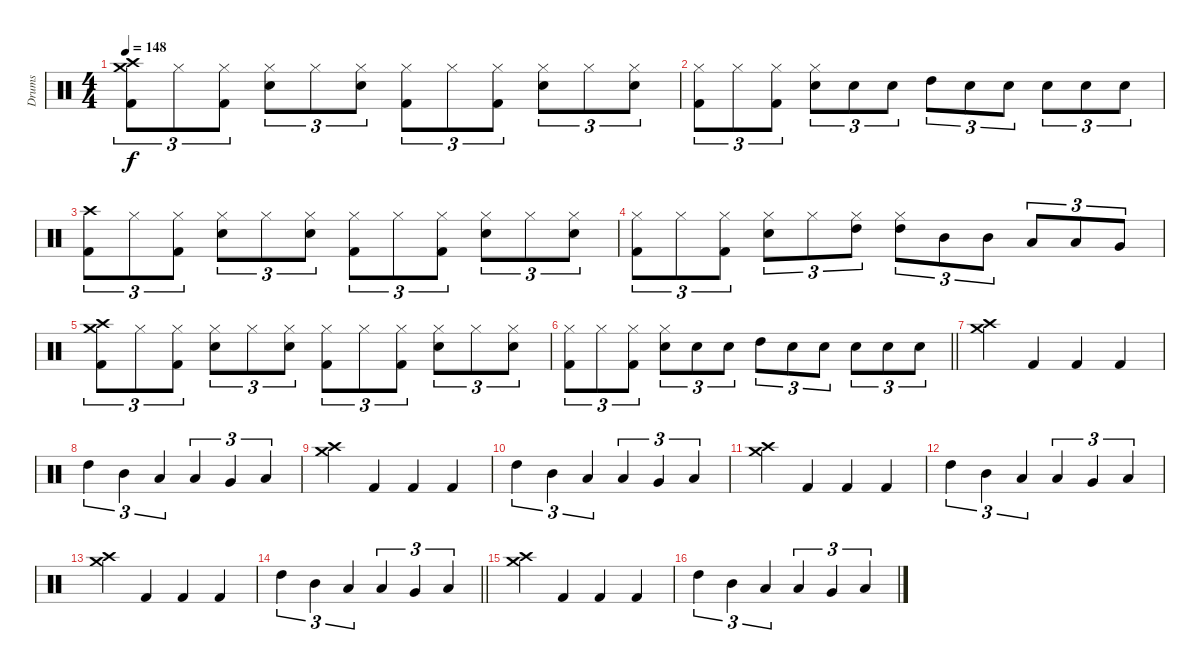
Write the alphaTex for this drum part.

\track ("Drums" "Drums") {instrument percussion}
\staff {score}
\articulation defaults
\ts (4 4)
\tempo 148
\clef neutral
\ks c
("Crash high (hit)" "Crash medium (hit)" "Kick (hit) 2").8{tu (3 2) dy f} "Hi-Hat (closed)".8{tu (3 2)} ("Hi-Hat (closed)" "Kick (hit) 2").8{tu (3 2)} ("Hi-Hat (closed)" "Snare (hit) 2").8{tu (3 2)} "Hi-Hat (closed)".8{tu (3 2)} ("Hi-Hat (closed)" "Snare (hit) 2").8{tu (3 2)} ("Hi-Hat (closed)" "Kick (hit) 2").8{tu (3 2)} "Hi-Hat (closed)".8{tu (3 2)} ("Hi-Hat (closed)" "Kick (hit) 2").8{tu (3 2)} ("Hi-Hat (closed)" "Snare (hit) 2").8{tu (3 2)} "Hi-Hat (closed)".8{tu (3 2)} ("Hi-Hat (closed)" "Snare (hit) 2").8{tu (3 2)} |
("Hi-Hat (closed)" "Kick (hit) 2").8{tu (3 2)} "Hi-Hat (closed)".8{tu (3 2)} ("Hi-Hat (closed)" "Kick (hit) 2").8{tu (3 2)} ("Hi-Hat (closed)" "Snare (hit) 2").8{tu (3 2)} "Snare (hit) 2".8{tu (3 2)} "Snare (hit) 2".8{tu (3 2)} "High Tom (hit)".8{tu (3 2)} "Snare (hit) 2".8{tu (3 2)} "Snare (hit) 2".8{tu (3 2)} "Snare (hit) 2".8{tu (3 2)} "Snare (hit) 2".8{tu (3 2)} "Snare (hit) 2".8{tu (3 2)} |
("Crash high (hit)" "Kick (hit) 2").8{tu (3 2)} "Hi-Hat (closed)".8{tu (3 2)} ("Hi-Hat (closed)" "Kick (hit) 2").8{tu (3 2)} ("Hi-Hat (closed)" "Snare (hit) 2").8{tu (3 2)} "Hi-Hat (closed)".8{tu (3 2)} ("Hi-Hat (closed)" "Snare (hit) 2").8{tu (3 2)} ("Hi-Hat (closed)" "Kick (hit) 2").8{tu (3 2)} "Hi-Hat (closed)".8{tu (3 2)} ("Hi-Hat (closed)" "Kick (hit) 2").8{tu (3 2)} ("Hi-Hat (closed)" "Snare (hit) 2").8{tu (3 2)} "Hi-Hat (closed)".8{tu (3 2)} ("Hi-Hat (closed)" "Snare (hit) 2").8{tu (3 2)} |
("Hi-Hat (closed)" "Kick (hit) 2").8{tu (3 2)} "Hi-Hat (closed)".8{tu (3 2)} ("Hi-Hat (closed)" "Kick (hit) 2").8{tu (3 2)} ("Hi-Hat (closed)" "Snare (hit) 2").8{tu (3 2)} "Hi-Hat (closed)".8{tu (3 2)} ("Hi-Hat (closed)" "High Tom (hit)").8{tu (3 2)} ("Hi-Hat (closed)" "High Tom (hit)").8{tu (3 2)} "Mid Tom (hit)".8{tu (3 2)} "Mid Tom (hit)".8{tu (3 2)} "Low Tom (hit)".8{tu (3 2)} "Low Tom (hit)".8{tu (3 2)} "Very Low Tom (hit)".8{tu (3 2)} |
("Crash high (hit)" "Crash medium (hit)" "Kick (hit) 2").8{tu (3 2)} "Hi-Hat (closed)".8{tu (3 2)} ("Hi-Hat (closed)" "Kick (hit) 2").8{tu (3 2)} ("Hi-Hat (closed)" "Snare (hit) 2").8{tu (3 2)} "Hi-Hat (closed)".8{tu (3 2)} ("Hi-Hat (closed)" "Snare (hit) 2").8{tu (3 2)} ("Hi-Hat (closed)" "Kick (hit) 2").8{tu (3 2)} "Hi-Hat (closed)".8{tu (3 2)} ("Hi-Hat (closed)" "Kick (hit) 2").8{tu (3 2)} ("Hi-Hat (closed)" "Snare (hit) 2").8{tu (3 2)} "Hi-Hat (closed)".8{tu (3 2)} ("Hi-Hat (closed)" "Snare (hit) 2").8{tu (3 2)} |
\barLineRight lightlight
("Hi-Hat (closed)" "Kick (hit) 2").8{tu (3 2)} "Hi-Hat (closed)".8{tu (3 2)} ("Hi-Hat (closed)" "Kick (hit) 2").8{tu (3 2)} ("Hi-Hat (closed)" "Snare (hit) 2").8{tu (3 2)} "Snare (hit) 2".8{tu (3 2)} "Snare (hit) 2".8{tu (3 2)} "High Tom (hit)".8{tu (3 2)} "Snare (hit) 2".8{tu (3 2)} "Snare (hit) 2".8{tu (3 2)} "Snare (hit) 2".8{tu (3 2)} "Snare (hit) 2".8{tu (3 2)} "Snare (hit) 2".8{tu (3 2)} |
("Crash medium (hit)" "Crash high (hit)").4 "Kick (hit) 2".4 "Kick (hit) 2".4 "Kick (hit) 2".4 |
"High Tom (hit)".4{tu (3 2)} "Mid Tom (hit)".4{tu (3 2)} "Low Tom (hit)".4{tu (3 2)} "Low Tom (hit)".4{tu (3 2)} "Very Low Tom (hit)".4{tu (3 2)} "Low Floor Tom (hit)".4{tu (3 2)} |
("Crash medium (hit)" "Crash high (hit)").4 "Kick (hit) 2".4 "Kick (hit) 2".4 "Kick (hit) 2".4 |
"High Tom (hit)".4{tu (3 2)} "Mid Tom (hit)".4{tu (3 2)} "Low Tom (hit)".4{tu (3 2)} "Low Tom (hit)".4{tu (3 2)} "Very Low Tom (hit)".4{tu (3 2)} "Low Floor Tom (hit)".4{tu (3 2)} |
("Crash medium (hit)" "Crash high (hit)").4 "Kick (hit) 2".4 "Kick (hit) 2".4 "Kick (hit) 2".4 |
"High Tom (hit)".4{tu (3 2)} "Mid Tom (hit)".4{tu (3 2)} "Low Tom (hit)".4{tu (3 2)} "Low Tom (hit)".4{tu (3 2)} "Very Low Tom (hit)".4{tu (3 2)} "Low Floor Tom (hit)".4{tu (3 2)} |
("Crash medium (hit)" "Crash high (hit)").4 "Kick (hit) 2".4 "Kick (hit) 2".4 "Kick (hit) 2".4 |
\barLineRight lightlight "High Tom (hit)".4{tu (3 2)} "Mid Tom (hit)".4{tu (3 2)} "Low Tom (hit)".4{tu (3 2)} "Low Tom (hit)".4{tu (3 2)} "Very Low Tom (hit)".4{tu (3 2)} "Low Floor Tom (hit)".4{tu (3 2)}
|
("Crash medium (hit)" "Crash high (hit)").4 "Kick (hit) 2".4 "Kick (hit) 2".4 "Kick (hit) 2".4 |
"High Tom (hit)".4{tu (3 2)} "Mid Tom (hit)".4{tu (3 2)} "Low Tom (hit)".4{tu (3 2)} "Low Tom (hit)".4{tu (3 2)} "Very Low Tom (hit)".4{tu (3 2)} "Low Floor Tom (hit)".4{tu (3 2)}
